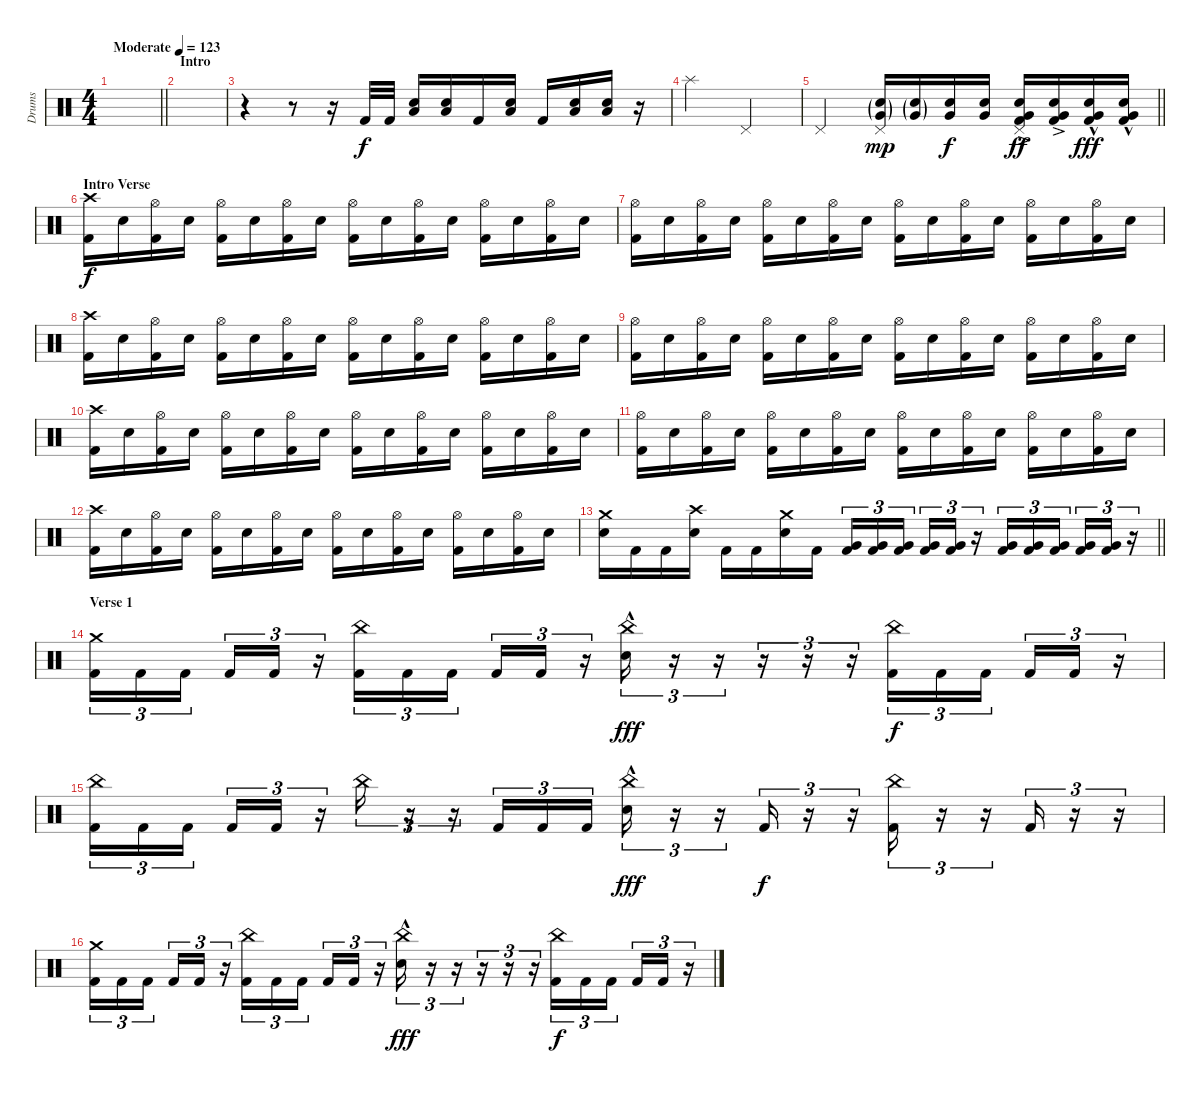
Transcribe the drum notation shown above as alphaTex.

\track ("Drums" "Drums") {instrument percussion}
\staff {score}
\articulation defaults
\ts (4 4)
\tempo (123 "Moderate")
\clef neutral
\barLineRight lightlight
\ks c
|
\section ("" "Intro")
|
r.4 r.8 r.16 "Kick (hit) 2".32 "Kick (hit) 2".32 ("Low Floor Tom (hit)" "Snare (hit) 2").16 ("Low Floor Tom (hit)" "Snare (hit) 2").16 "Kick (hit) 2".16 ("Low Floor Tom (hit)" "Snare (hit) 2").16 "Kick (hit) 2".16 ("Low Floor Tom (hit)" "Snare (hit) 2").16 ("Low Floor Tom (hit)" "Snare (hit) 2").16 r.16 |
"Splash (hit)".2 "Pedal Hi-Hat (hit)".2 |
\barLineRight lightlight "Pedal Hi-Hat (hit)".2
("Pedal Hi-Hat (hit)" "Very Low Tom (hit)"{g} "Snare (hit) 2"{g}).16{dy mp} ("Very Low Tom (hit)"{g} "Snare (hit) 2"{g}).16 ("Very Low Tom (hit)" "Snare (hit) 2").16{dy f} ("Very Low Tom (hit)" "Snare (hit) 2").16 ("Pedal Hi-Hat (hit)" "Very Low Tom (hit)"{ac} "Snare (hit) 2"{ac} "Kick (hit) 2").16{dy ff} ("Very Low Tom (hit)"{ac} "Snare (hit) 2"{ac} "Kick (hit) 2").16 ("Very Low Tom (hit)"{hac} "Snare (hit) 2"{hac} "Kick (hit) 2").16{dy fff} ("Very Low Tom (hit)"{hac} "Snare (hit) 2"{hac} "Kick (hit) 2").16 |
\section ("" "Intro Verse")
("Crash high (hit)" "Kick (hit) 2").16{dy f} "Snare (hit) 2".16 ("Hi-Hat (open)" "Kick (hit) 2").16 "Snare (hit) 2".16 ("Hi-Hat (open)" "Kick (hit) 2").16 "Snare (hit) 2".16 ("Hi-Hat (open)" "Kick (hit) 2").16 "Snare (hit) 2".16 ("Hi-Hat (open)" "Kick (hit) 2").16 "Snare (hit) 2".16 ("Hi-Hat (open)" "Kick (hit) 2").16 "Snare (hit) 2".16 ("Hi-Hat (open)" "Kick (hit) 2").16 "Snare (hit) 2".16 ("Hi-Hat (open)" "Kick (hit) 2").16 "Snare (hit) 2".16 |
("Hi-Hat (open)" "Kick (hit) 2").16 "Snare (hit) 2".16 ("Hi-Hat (open)" "Kick (hit) 2").16 "Snare (hit) 2".16 ("Hi-Hat (open)" "Kick (hit) 2").16 "Snare (hit) 2".16 ("Hi-Hat (open)" "Kick (hit) 2").16 "Snare (hit) 2".16 ("Hi-Hat (open)" "Kick (hit) 2").16 "Snare (hit) 2".16 ("Hi-Hat (open)" "Kick (hit) 2").16 "Snare (hit) 2".16 ("Hi-Hat (open)" "Kick (hit) 2").16 "Snare (hit) 2".16 ("Hi-Hat (open)" "Kick (hit) 2").16 "Snare (hit) 2".16 |
("Crash high (hit)" "Kick (hit) 2").16 "Snare (hit) 2".16 ("Hi-Hat (open)" "Kick (hit) 2").16 "Snare (hit) 2".16 ("Hi-Hat (open)" "Kick (hit) 2").16 "Snare (hit) 2".16 ("Hi-Hat (open)" "Kick (hit) 2").16 "Snare (hit) 2".16 ("Hi-Hat (open)" "Kick (hit) 2").16 "Snare (hit) 2".16 ("Hi-Hat (open)" "Kick (hit) 2").16 "Snare (hit) 2".16 ("Hi-Hat (open)" "Kick (hit) 2").16 "Snare (hit) 2".16 ("Hi-Hat (open)" "Kick (hit) 2").16 "Snare (hit) 2".16 |
("Hi-Hat (open)" "Kick (hit) 2").16 "Snare (hit) 2".16 ("Hi-Hat (open)" "Kick (hit) 2").16 "Snare (hit) 2".16 ("Hi-Hat (open)" "Kick (hit) 2").16 "Snare (hit) 2".16 ("Hi-Hat (open)" "Kick (hit) 2").16 "Snare (hit) 2".16 ("Hi-Hat (open)" "Kick (hit) 2").16 "Snare (hit) 2".16 ("Hi-Hat (open)" "Kick (hit) 2").16 "Snare (hit) 2".16 ("Hi-Hat (open)" "Kick (hit) 2").16 "Snare (hit) 2".16 ("Hi-Hat (open)" "Kick (hit) 2").16 "Snare (hit) 2".16 |
("Crash high (hit)" "Kick (hit) 2").16 "Snare (hit) 2".16 ("Hi-Hat (open)" "Kick (hit) 2").16 "Snare (hit) 2".16 ("Hi-Hat (open)" "Kick (hit) 2").16 "Snare (hit) 2".16 ("Hi-Hat (open)" "Kick (hit) 2").16 "Snare (hit) 2".16 ("Hi-Hat (open)" "Kick (hit) 2").16 "Snare (hit) 2".16 ("Hi-Hat (open)" "Kick (hit) 2").16 "Snare (hit) 2".16 ("Hi-Hat (open)" "Kick (hit) 2").16 "Snare (hit) 2".16 ("Hi-Hat (open)" "Kick (hit) 2").16 "Snare (hit) 2".16 |
("Hi-Hat (open)" "Kick (hit) 2").16 "Snare (hit) 2".16 ("Hi-Hat (open)" "Kick (hit) 2").16 "Snare (hit) 2".16 ("Hi-Hat (open)" "Kick (hit) 2").16 "Snare (hit) 2".16 ("Hi-Hat (open)" "Kick (hit) 2").16 "Snare (hit) 2".16 ("Hi-Hat (open)" "Kick (hit) 2").16 "Snare (hit) 2".16 ("Hi-Hat (open)" "Kick (hit) 2").16 "Snare (hit) 2".16 ("Hi-Hat (open)" "Kick (hit) 2").16 "Snare (hit) 2".16 ("Hi-Hat (open)" "Kick (hit) 2").16 "Snare (hit) 2".16 |
("Crash high (hit)" "Kick (hit) 2").16 "Snare (hit) 2".16 ("Hi-Hat (open)" "Kick (hit) 2").16 "Snare (hit) 2".16 ("Hi-Hat (open)" "Kick (hit) 2").16 "Snare (hit) 2".16 ("Hi-Hat (open)" "Kick (hit) 2").16 "Snare (hit) 2".16 ("Hi-Hat (open)" "Kick (hit) 2").16 "Snare (hit) 2".16 ("Hi-Hat (open)" "Kick (hit) 2").16 "Snare (hit) 2".16 ("Hi-Hat (open)" "Kick (hit) 2").16 "Snare (hit) 2".16 ("Hi-Hat (open)" "Kick (hit) 2").16 "Snare (hit) 2".16 |
\barLineRight lightlight
("Crash medium (hit)" "Snare (hit) 2").16 "Kick (hit) 2".16 "Kick (hit) 2".16 ("Crash high (hit)" "Snare (hit) 2").16 "Kick (hit) 2".16 "Kick (hit) 2".16 ("Crash medium (hit)" "Snare (hit) 2").16 "Kick (hit) 2".16 ("Very Low Tom (hit)" "Kick (hit) 2").16{tu (3 2)} ("Very Low Tom (hit)" "Kick (hit) 2").16{tu (3 2)} ("Very Low Tom (hit)" "Kick (hit) 2").16{tu (3 2) beam splitsecondary} ("Very Low Tom (hit)" "Kick (hit) 2").16{tu (3 2)} ("Very Low Tom (hit)" "Kick (hit) 2").16{tu (3 2)} r.16{tu (3 2)} ("Very Low Tom (hit)" "Kick (hit) 2").16{tu (3 2)} ("Very Low Tom (hit)" "Kick (hit) 2").16{tu (3 2)} ("Very Low Tom (hit)" "Kick (hit) 2").16{tu (3 2) beam splitsecondary} ("Very Low Tom (hit)" "Kick (hit) 2").16{tu (3 2)} ("Very Low Tom (hit)" "Kick (hit) 2").16{tu (3 2)} r.16{tu (3 2)} |
\section ("" "Verse 1")
("Crash medium (hit)" "Kick (hit) 2").16{tu (3 2)} "Kick (hit) 2".16{tu (3 2)} "Kick (hit) 2".16{tu (3 2) beam splitsecondary} "Kick (hit) 2".16{tu (3 2)} "Kick (hit) 2".16{tu (3 2)} r.16{tu (3 2)} ("China (hit)" "Kick (hit) 2").16{tu (3 2)} "Kick (hit) 2".16{tu (3 2)} "Kick (hit) 2".16{tu (3 2) beam splitsecondary} "Kick (hit) 2".16{tu (3 2)} "Kick (hit) 2".16{tu (3 2)} r.16{tu (3 2)} ("China (hit)" "Snare (hit) 2"{hac}).16{tu (3 2) dy fff} r.16{tu (3 2)} r.16{tu (3 2)} r.16{tu (3 2)} r.16{tu (3 2)} r.16{tu (3 2)} ("China (hit)" "Kick (hit) 2").16{tu (3 2) dy f} "Kick (hit) 2".16{tu (3 2)} "Kick (hit) 2".16{tu (3 2) beam splitsecondary} "Kick (hit) 2".16{tu (3 2)} "Kick (hit) 2".16{tu (3 2)} r.16{tu (3 2)} |
("China (hit)" "Kick (hit) 2").16{tu (3 2)} "Kick (hit) 2".16{tu (3 2)} "Kick (hit) 2".16{tu (3 2) beam splitsecondary} "Kick (hit) 2".16{tu (3 2)} "Kick (hit) 2".16{tu (3 2)} r.16{tu (3 2)} "China (hit)".16{tu (3 2)} r.16{tu (3 2)} r.16{tu (3 2)} "Kick (hit) 2".16{tu (3 2)} "Kick (hit) 2".16{tu (3 2)} "Kick (hit) 2".16{tu (3 2)} ("China (hit)" "Snare (hit) 2"{hac}).16{tu (3 2) dy fff} r.16{tu (3 2)} r.16{tu (3 2)} "Kick (hit) 2".16{tu (3 2) dy f} r.16{tu (3 2)} r.16{tu (3 2)} ("China (hit)" "Kick (hit) 2").16{tu (3 2)} r.16{tu (3 2)} r.16{tu (3 2)} "Kick (hit) 2".16{tu (3 2)} r.16{tu (3 2)} r.16{tu (3 2)} |
("Crash medium (hit)" "Kick (hit) 2").16{tu (3 2)} "Kick (hit) 2".16{tu (3 2)} "Kick (hit) 2".16{tu (3 2) beam splitsecondary} "Kick (hit) 2".16{tu (3 2)} "Kick (hit) 2".16{tu (3 2)} r.16{tu (3 2)} ("China (hit)" "Kick (hit) 2").16{tu (3 2)} "Kick (hit) 2".16{tu (3 2)} "Kick (hit) 2".16{tu (3 2) beam splitsecondary} "Kick (hit) 2".16{tu (3 2)} "Kick (hit) 2".16{tu (3 2)} r.16{tu (3 2)} ("China (hit)" "Snare (hit) 2"{hac}).16{tu (3 2) dy fff} r.16{tu (3 2)} r.16{tu (3 2)} r.16{tu (3 2)} r.16{tu (3 2)} r.16{tu (3 2)} ("China (hit)" "Kick (hit) 2").16{tu (3 2) dy f} "Kick (hit) 2".16{tu (3 2)} "Kick (hit) 2".16{tu (3 2) beam splitsecondary} "Kick (hit) 2".16{tu (3 2)} "Kick (hit) 2".16{tu (3 2)} r.16{tu (3 2)}
